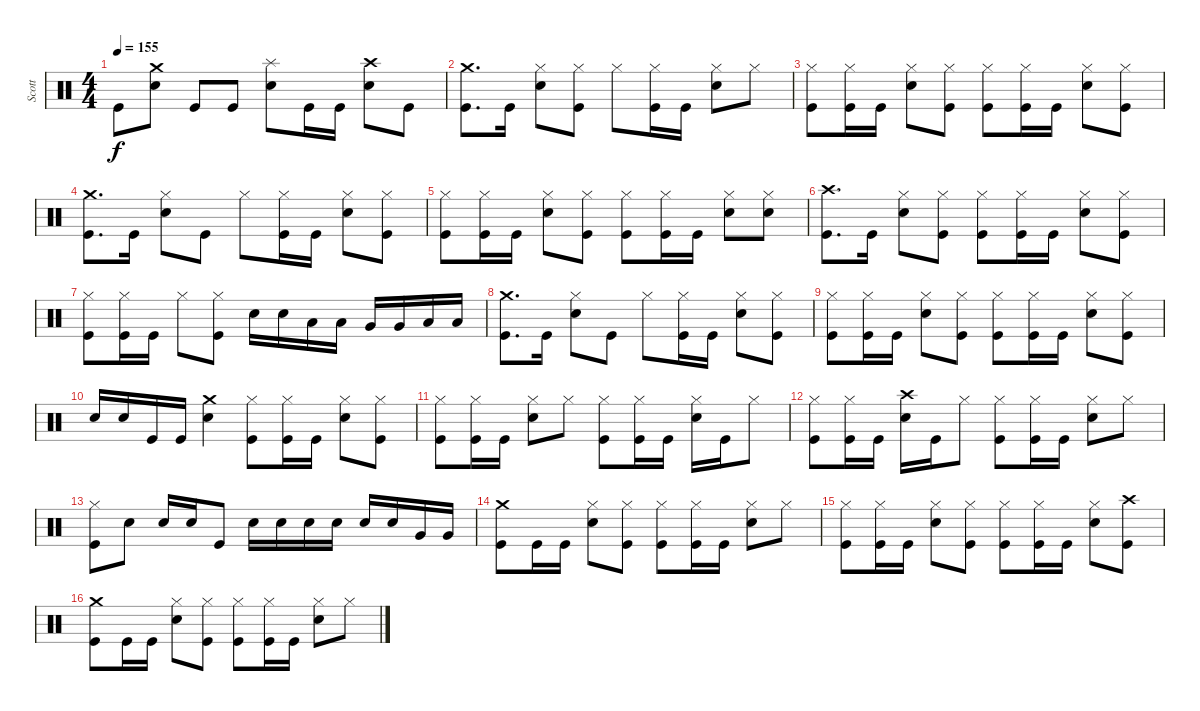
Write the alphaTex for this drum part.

\track ("Scott" "Scott") {instrument percussion}
\staff {score}
\articulation defaults
\ts (4 4)
\tempo 155
\clef neutral
\ks c "Kick (hit)".8{dy f}
("Snare (hit) 2" "Crash medium (hit)").8 "Kick (hit)".8 "Kick (hit)".8 ("Snare (hit) 2" "Splash (hit)").8 "Kick (hit)".16 "Kick (hit)".16 ("Snare (hit) 2" "Crash high (hit)").8 "Kick (hit)".8 |
("Kick (hit)" "Crash medium (hit)").8{d} "Kick (hit)".16 ("Snare (hit) 2" "Hi-Hat (closed)").8 ("Kick (hit)" "Hi-Hat (closed)").8 "Hi-Hat (closed)".8 ("Kick (hit)" "Hi-Hat (closed)").16 "Kick (hit)".16 ("Snare (hit) 2" "Hi-Hat (closed)").8 "Hi-Hat (closed)".8 |
("Kick (hit)" "Hi-Hat (closed)").8 ("Kick (hit)" "Hi-Hat (closed)").16 "Kick (hit)".16 ("Snare (hit) 2" "Hi-Hat (closed)").8 ("Kick (hit)" "Hi-Hat (closed)").8 ("Kick (hit)" "Hi-Hat (closed)").8 ("Kick (hit)" "Hi-Hat (closed)").16 "Kick (hit)".16 ("Snare (hit) 2" "Hi-Hat (closed)").8 ("Kick (hit)" "Hi-Hat (closed)").8 |
("Kick (hit)" "Crash medium (hit)").8{d} "Kick (hit)".16 ("Snare (hit) 2" "Hi-Hat (closed)").8 "Kick (hit)".8 "Hi-Hat (closed)".8 ("Kick (hit)" "Hi-Hat (closed)").16 "Kick (hit)".16 ("Snare (hit) 2" "Hi-Hat (closed)").8 ("Kick (hit)" "Hi-Hat (closed)").8 |
("Kick (hit)" "Hi-Hat (closed)").8 ("Kick (hit)" "Hi-Hat (closed)").16 "Kick (hit)".16 ("Snare (hit) 2" "Hi-Hat (closed)").8 ("Kick (hit)" "Hi-Hat (closed)").8 ("Kick (hit)" "Hi-Hat (closed)").8 ("Kick (hit)" "Hi-Hat (closed)").16 "Kick (hit)".16 ("Snare (hit) 2" "Hi-Hat (closed)").8 ("Snare (hit) 2" "Hi-Hat (closed)").8 |
("Kick (hit)" "Crash high (hit)").8{d} "Kick (hit)".16 ("Snare (hit) 2" "Hi-Hat (closed)").8 ("Kick (hit)" "Hi-Hat (closed)").8 ("Kick (hit)" "Hi-Hat (closed)").8 ("Kick (hit)" "Hi-Hat (closed)").16 "Kick (hit)".16 ("Snare (hit) 2" "Hi-Hat (closed)").8 ("Kick (hit)" "Hi-Hat (closed)").8 |
("Kick (hit)" "Hi-Hat (closed)").8 ("Kick (hit)" "Hi-Hat (closed)").16 "Kick (hit)".16 "Hi-Hat (closed)".8 ("Kick (hit)" "Hi-Hat (closed)").8 "Snare (hit) 2".16 "Snare (hit) 2".16 "Low Tom (hit)".16 "Low Tom (hit)".16 "Very Low Tom (hit)".16 "Very Low Tom (hit)".16 "Low Floor Tom (hit)".16 "Low Floor Tom (hit)".16 |
("Kick (hit)" "Crash medium (hit)").8{d} "Kick (hit)".16 ("Snare (hit) 2" "Hi-Hat (closed)").8 "Kick (hit)".8 "Hi-Hat (closed)".8 ("Kick (hit)" "Hi-Hat (closed)").16 "Kick (hit)".16 ("Snare (hit) 2" "Hi-Hat (closed)").8 ("Kick (hit)" "Hi-Hat (closed)").8 |
("Kick (hit)" "Hi-Hat (closed)").8 ("Kick (hit)" "Hi-Hat (closed)").16 "Kick (hit)".16 ("Snare (hit) 2" "Hi-Hat (closed)").8 ("Kick (hit)" "Hi-Hat (closed)").8 ("Kick (hit)" "Hi-Hat (closed)").8 ("Kick (hit)" "Hi-Hat (closed)").16 "Kick (hit)".16 ("Snare (hit) 2" "Hi-Hat (closed)").8 ("Kick (hit)" "Hi-Hat (closed)").8 |
"Snare (hit) 2".16 "Snare (hit) 2".16 "Kick (hit)".16 "Kick (hit)".16 ("Snare (hit) 2" "Crash medium (hit)").4 ("Kick (hit)" "Hi-Hat (closed)").8 ("Kick (hit)" "Hi-Hat (closed)").16 "Kick (hit)".16 ("Snare (hit) 2" "Hi-Hat (closed)").8 ("Kick (hit)" "Hi-Hat (closed)").8 |
("Kick (hit)" "Hi-Hat (closed)").8 ("Kick (hit)" "Hi-Hat (closed)").16 "Kick (hit)".16 ("Snare (hit) 2" "Hi-Hat (closed)").8 "Hi-Hat (closed)".8 ("Kick (hit)" "Hi-Hat (closed)").8 ("Kick (hit)" "Hi-Hat (closed)").16 "Kick (hit)".16 ("Snare (hit) 2" "Hi-Hat (closed)").16 "Kick (hit)".16 "Hi-Hat (closed)".8 |
("Kick (hit)" "Hi-Hat (closed)").8 ("Kick (hit)" "Hi-Hat (closed)").16 "Kick (hit)".16 ("Snare (hit) 2" "Crash high (hit)").16 "Kick (hit)".16 "Hi-Hat (closed)".8 ("Kick (hit)" "Hi-Hat (closed)").8 ("Kick (hit)" "Hi-Hat (closed)").16 "Kick (hit)".16 ("Snare (hit) 2" "Hi-Hat (closed)").8 "Hi-Hat (closed)".8 |
("Kick (hit)" "Hi-Hat (closed)").8 "Snare (hit) 2".8 "Snare (hit) 2".16 "Snare (hit) 2".16 "Kick (hit)".8 "Snare (hit) 2".16 "Snare (hit) 2".16 "Snare (hit) 2".16 "Snare (hit) 2".16 "Snare (hit) 2".16 "Snare (hit) 2".16 "Very Low Tom (hit)".16 "Very Low Tom (hit)".16 |
("Kick (hit)" "Crash medium (hit)").8 "Kick (hit)".16 "Kick (hit)".16 ("Snare (hit) 2" "Hi-Hat (closed)").8 ("Kick (hit)" "Hi-Hat (closed)").8 ("Kick (hit)" "Hi-Hat (closed)").8 ("Kick (hit)" "Hi-Hat (closed)").16 "Kick (hit)".16 ("Snare (hit) 2" "Hi-Hat (closed)").8 "Hi-Hat (closed)".8 |
("Kick (hit)" "Hi-Hat (closed)").8 ("Kick (hit)" "Hi-Hat (closed)").16 "Kick (hit)".16 ("Snare (hit) 2" "Hi-Hat (closed)").8 ("Kick (hit)" "Hi-Hat (closed)").8 ("Kick (hit)" "Hi-Hat (closed)").8 ("Kick (hit)" "Hi-Hat (closed)").16 "Kick (hit)".16 ("Snare (hit) 2" "Hi-Hat (closed)").8 ("Kick (hit)" "Crash high (hit)").8 |
("Kick (hit)" "Crash medium (hit)").8 "Kick (hit)".16 "Kick (hit)".16 ("Snare (hit) 2" "Hi-Hat (closed)").8 ("Kick (hit)" "Hi-Hat (closed)").8 ("Kick (hit)" "Hi-Hat (closed)").8 ("Kick (hit)" "Hi-Hat (closed)").16 "Kick (hit)".16 ("Snare (hit) 2" "Hi-Hat (closed)").8 "Hi-Hat (closed)".8
